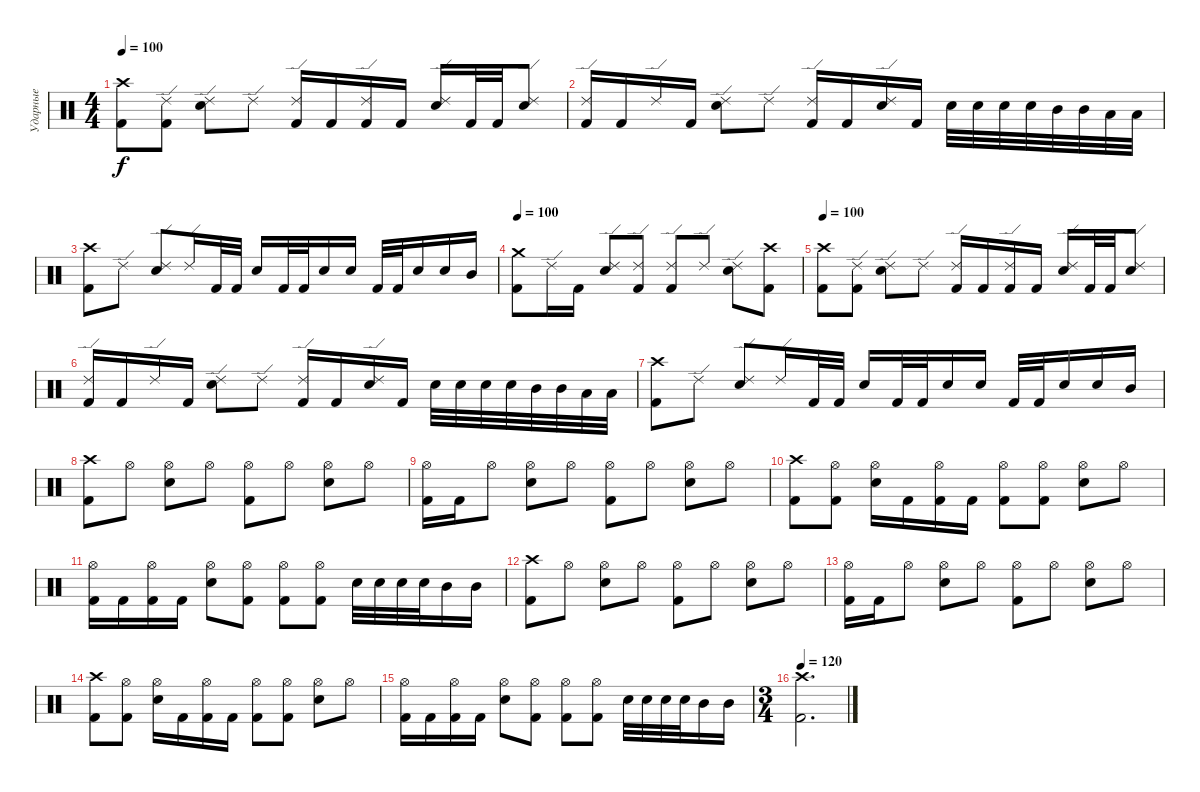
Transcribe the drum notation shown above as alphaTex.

\track ("Ударные" "Ударные") {instrument percussion}
\staff {score}
\articulation defaults
\ts (4 4)
\tempo 100
\clef neutral
\ks c
("Kick (hit) 2" "Crash high (hit)").8{dy f} ("Kick (hit) 2" "Ride (edge) 2").8 ("Electric Snare (hit)" "Ride (edge) 2").8 "Ride (edge) 2".8 ("Kick (hit) 2" "Ride (edge) 2").16 "Kick (hit) 2".16 ("Kick (hit) 2" "Ride (edge) 2").16 "Kick (hit) 2".16 ("Electric Snare (hit)" "Ride (edge) 2").16 "Kick (hit) 2".32 "Kick (hit) 2".32 ("Electric Snare (hit)" "Ride (edge) 2").8 |
("Kick (hit) 2" "Ride (edge) 2").16 "Kick (hit) 2".16 "Ride (edge) 2".16 "Kick (hit) 2".16 ("Electric Snare (hit)" "Ride (edge) 2").8 "Ride (edge) 2".8 ("Kick (hit) 2" "Ride (edge) 2").16 "Kick (hit) 2".16 ("Electric Snare (hit)" "Ride (edge) 2").16 "Kick (hit) 2".16 "Electric Snare (hit)".32 "Electric Snare (hit)".32 "Electric Snare (hit)".32 "Electric Snare (hit)".32 "Mid Tom (hit)".32 "Mid Tom (hit)".32 "Low Tom (hit)".32 "Low Tom (hit)".32 |
("Kick (hit) 2" "Crash high (hit)").8 "Ride (edge) 2".8 ("Electric Snare (hit)" "Ride (edge) 2").8 "Ride (edge) 2".16 "Kick (hit) 2".32 "Kick (hit) 2".32 "Electric Snare (hit)".16 "Kick (hit) 2".32 "Kick (hit) 2".32 "Electric Snare (hit)".16 "Electric Snare (hit)".16 "Kick (hit) 2".32 "Kick (hit) 2".32 "Electric Snare (hit)".16 "Electric Snare (hit)".16 "Mid Tom (hit)".16 |
\tempo 100
("Kick (hit) 2" "Crash medium (hit)").8 "Ride (edge) 2".16 "Kick (hit) 2".16 ("Electric Snare (hit)" "Ride (edge) 2").8 ("Kick (hit) 2" "Ride (edge) 2").8 ("Kick (hit) 2" "Ride (edge) 2").8 "Ride (edge) 2".8 ("Electric Snare (hit)" "Ride (edge) 2").8 ("Kick (hit) 2" "Crash high (hit)").8 |
\tempo 100
("Kick (hit) 2" "Crash high (hit)").8 ("Kick (hit) 2" "Ride (edge) 2").8 ("Electric Snare (hit)" "Ride (edge) 2").8 "Ride (edge) 2".8 ("Kick (hit) 2" "Ride (edge) 2").16 "Kick (hit) 2".16 ("Kick (hit) 2" "Ride (edge) 2").16 "Kick (hit) 2".16 ("Electric Snare (hit)" "Ride (edge) 2").16 "Kick (hit) 2".32 "Kick (hit) 2".32 ("Electric Snare (hit)" "Ride (edge) 2").8 |
("Kick (hit) 2" "Ride (edge) 2").16 "Kick (hit) 2".16 "Ride (edge) 2".16 "Kick (hit) 2".16 ("Electric Snare (hit)" "Ride (edge) 2").8 "Ride (edge) 2".8 ("Kick (hit) 2" "Ride (edge) 2").16 "Kick (hit) 2".16 ("Electric Snare (hit)" "Ride (edge) 2").16 "Kick (hit) 2".16 "Electric Snare (hit)".32 "Electric Snare (hit)".32 "Electric Snare (hit)".32 "Electric Snare (hit)".32 "Mid Tom (hit)".32 "Mid Tom (hit)".32 "Low Tom (hit)".32 "Low Tom (hit)".32 |
("Kick (hit) 2" "Crash high (hit)").8 "Ride (edge) 2".8 ("Electric Snare (hit)" "Ride (edge) 2").8 "Ride (edge) 2".16 "Kick (hit) 2".32 "Kick (hit) 2".32 "Electric Snare (hit)".16 "Kick (hit) 2".32 "Kick (hit) 2".32 "Electric Snare (hit)".16 "Electric Snare (hit)".16 "Kick (hit) 2".32 "Kick (hit) 2".32 "Electric Snare (hit)".16 "Electric Snare (hit)".16 "Mid Tom (hit)".16 |
("Kick (hit) 2" "Crash high (hit)").8 "Hi-Hat (open)".8 ("Electric Snare (hit)" "Hi-Hat (open)").8 "Hi-Hat (open)".8 ("Kick (hit) 2" "Hi-Hat (open)").8 "Hi-Hat (open)".8 ("Electric Snare (hit)" "Hi-Hat (open)").8 "Hi-Hat (open)".8 |
("Kick (hit) 2" "Hi-Hat (open)").16 "Kick (hit) 2".16 "Hi-Hat (open)".8 ("Electric Snare (hit)" "Hi-Hat (open)").8 "Hi-Hat (open)".8 ("Kick (hit) 2" "Hi-Hat (open)").8 "Hi-Hat (open)".8 ("Electric Snare (hit)" "Hi-Hat (open)").8 "Hi-Hat (open)".8 |
("Kick (hit) 2" "Crash high (hit)").8 ("Kick (hit) 2" "Hi-Hat (open)").8 ("Electric Snare (hit)" "Hi-Hat (open)").16 "Kick (hit) 2".16 ("Kick (hit) 2" "Hi-Hat (open)").16 "Kick (hit) 2".16 ("Kick (hit) 2" "Hi-Hat (open)").8 ("Kick (hit) 2" "Hi-Hat (open)").8 ("Electric Snare (hit)" "Hi-Hat (open)").8 "Hi-Hat (open)".8 |
("Kick (hit) 2" "Hi-Hat (open)").16 "Kick (hit) 2".16 ("Kick (hit) 2" "Hi-Hat (open)").16 "Kick (hit) 2".16 ("Electric Snare (hit)" "Hi-Hat (open)").8 ("Kick (hit) 2" "Hi-Hat (open)").8 ("Kick (hit) 2" "Hi-Hat (open)").8 ("Kick (hit) 2" "Hi-Hat (open)").8 "Electric Snare (hit)".32 "Electric Snare (hit)".32 "Electric Snare (hit)".32 "Electric Snare (hit)".32 "Mid Tom (hit)".16 "Mid Tom (hit)".16 |
("Kick (hit) 2" "Crash high (hit)").8 "Hi-Hat (open)".8 ("Electric Snare (hit)" "Hi-Hat (open)").8 "Hi-Hat (open)".8 ("Kick (hit) 2" "Hi-Hat (open)").8 "Hi-Hat (open)".8 ("Electric Snare (hit)" "Hi-Hat (open)").8 "Hi-Hat (open)".8 |
("Kick (hit) 2" "Hi-Hat (open)").16 "Kick (hit) 2".16 "Hi-Hat (open)".8 ("Electric Snare (hit)" "Hi-Hat (open)").8 "Hi-Hat (open)".8 ("Kick (hit) 2" "Hi-Hat (open)").8 "Hi-Hat (open)".8 ("Electric Snare (hit)" "Hi-Hat (open)").8 "Hi-Hat (open)".8 |
("Kick (hit) 2" "Crash high (hit)").8 ("Kick (hit) 2" "Hi-Hat (open)").8 ("Electric Snare (hit)" "Hi-Hat (open)").16 "Kick (hit) 2".16 ("Kick (hit) 2" "Hi-Hat (open)").16 "Kick (hit) 2".16 ("Kick (hit) 2" "Hi-Hat (open)").8 ("Kick (hit) 2" "Hi-Hat (open)").8 ("Electric Snare (hit)" "Hi-Hat (open)").8 "Hi-Hat (open)".8 |
("Kick (hit) 2" "Hi-Hat (open)").16 "Kick (hit) 2".16 ("Kick (hit) 2" "Hi-Hat (open)").16 "Kick (hit) 2".16 ("Electric Snare (hit)" "Hi-Hat (open)").8 ("Kick (hit) 2" "Hi-Hat (open)").8 ("Kick (hit) 2" "Hi-Hat (open)").8 ("Kick (hit) 2" "Hi-Hat (open)").8 "Electric Snare (hit)".32 "Electric Snare (hit)".32 "Electric Snare (hit)".32 "Electric Snare (hit)".32 "Mid Tom (hit)".16 "Mid Tom (hit)".16 |
\ts (3 4)
\tempo 120
("Kick (hit) 2" "Crash high (hit)").2{d}
